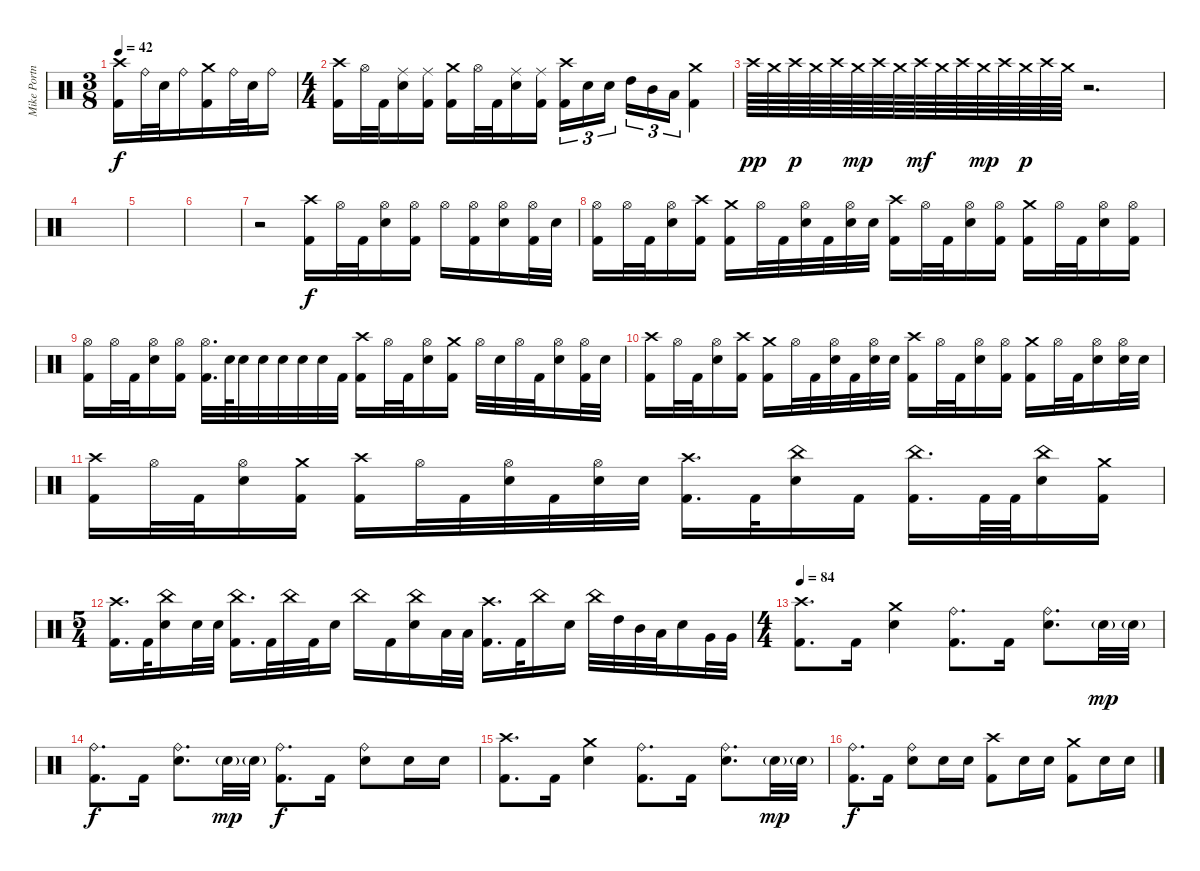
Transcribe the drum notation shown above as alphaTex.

\track ("Mike Portnoy" "Mike Portn") {instrument percussion}
\staff {score}
\articulation defaults
\ts (3 8)
\tempo 42
\clef neutral
\ks c
("Crash high (hit)" "Kick (hit) 2").16{dy f} "Ride (bell)".32 "Snare (hit) 2".32 "Ride (bell)".16 ("Crash medium (hit)" "Kick (hit) 2").16 "Ride (bell)".32 "Snare (hit) 2".32 "Ride (bell)".16 |
\ts (4 4)
("Crash high (hit)" "Kick (hit) 2").16 "Hi-Hat (open)".32 "Kick (hit) 2".32 ("Ride (middle)" "Snare (hit) 2").16 ("Ride (middle)" "Kick (hit) 2").16 ("Crash medium (hit)" "Kick (hit) 2").16 "Hi-Hat (open)".32 "Kick (hit) 2".32 ("Ride (middle)" "Snare (hit) 2").16 ("Ride (middle)" "Kick (hit) 2").16 ("Crash high (hit)" "Kick (hit) 2").16{tu (3 2)} "Snare (hit) 2".16{tu (3 2)} "Snare (hit) 2".16{tu (3 2) beam splitsecondary} "High Tom (hit)".16{tu (3 2)} "Mid Tom (hit)".16{tu (3 2)} "Low Tom (hit)".16{tu (3 2)} ("Crash medium (hit)" "Kick (hit) 2").4 |
"Crash high (hit)".64{dy pp} "Crash medium (hit)".64 "Crash high (hit)".64{dy p} "Crash medium (hit)".64 "Crash high (hit)".64 "Crash medium (hit)".64{dy mp} "Crash high (hit)".64 "Crash medium (hit)".64 "Crash high (hit)".64{dy mf} "Crash medium (hit)".64 "Crash high (hit)".64 "Crash medium (hit)".64{dy mp} "Crash high (hit)".64 "Crash medium (hit)".64{dy p} "Crash high (hit)".64 "Crash medium (hit)".64 r.2{d} |
|
|
|
r.2 ("Crash high (hit)" "Kick (hit) 2").16{dy f} "Hi-Hat (open)".32 "Kick (hit) 2".32 ("Hi-Hat (open)" "Snare (hit) 2").16 ("Hi-Hat (open)" "Kick (hit) 2").16 "Hi-Hat (open)".16 ("Hi-Hat (open)" "Kick (hit) 2").16 ("Hi-Hat (open)" "Snare (hit) 2").16 ("Hi-Hat (open)" "Kick (hit) 2").32 "Snare (hit) 2".32 |
("Hi-Hat (open)" "Kick (hit) 2").16 "Hi-Hat (open)".32 "Kick (hit) 2".32 ("Hi-Hat (open)" "Snare (hit) 2").16 ("Crash high (hit)" "Kick (hit) 2").16 ("Crash medium (hit)" "Kick (hit) 2").16 "Hi-Hat (open)".32 "Kick (hit) 2".32 ("Hi-Hat (open)" "Snare (hit) 2").32 "Kick (hit) 2".32 ("Hi-Hat (open)" "Snare (hit) 2").32 "Snare (hit) 2".32 ("Crash high (hit)" "Kick (hit) 2").16 "Hi-Hat (open)".32 "Kick (hit) 2".32 ("Hi-Hat (open)" "Snare (hit) 2").16 ("Hi-Hat (open)" "Kick (hit) 2").16 ("Crash medium (hit)" "Kick (hit) 2").16 "Hi-Hat (open)".32 "Kick (hit) 2".32 ("Hi-Hat (open)" "Snare (hit) 2").16 ("Hi-Hat (open)" "Kick (hit) 2").16 |
("Hi-Hat (open)" "Kick (hit) 2").16 "Hi-Hat (open)".32 "Kick (hit) 2".32 ("Hi-Hat (open)" "Snare (hit) 2").16 ("Hi-Hat (open)" "Kick (hit) 2").16 ("Hi-Hat (open)" "Kick (hit) 2").32{d} "Snare (hit) 2".64 "Snare (hit) 2".32 "Snare (hit) 2".32 "Snare (hit) 2".32 "Snare (hit) 2".32 "Snare (hit) 2".32 "Kick (hit) 2".32 ("Crash high (hit)" "Kick (hit) 2").16 "Hi-Hat (open)".32 "Kick (hit) 2".32 ("Hi-Hat (open)" "Snare (hit) 2").16 ("Crash medium (hit)" "Kick (hit) 2").16 "Hi-Hat (open)".32 "Snare (hit) 2".32 "Hi-Hat (open)".32 "Kick (hit) 2".32 ("Hi-Hat (open)" "Snare (hit) 2").16 ("Hi-Hat (open)" "Kick (hit) 2").32 "Snare (hit) 2".32 |
("Crash high (hit)" "Kick (hit) 2").16 "Hi-Hat (open)".32 "Kick (hit) 2".32 ("Hi-Hat (open)" "Snare (hit) 2").16 ("Crash high (hit)" "Kick (hit) 2").16 ("Crash medium (hit)" "Kick (hit) 2").16 "Hi-Hat (open)".32 "Kick (hit) 2".32 ("Hi-Hat (open)" "Snare (hit) 2").32 "Kick (hit) 2".32 ("Hi-Hat (open)" "Snare (hit) 2").32 "Snare (hit) 2".32 ("Crash high (hit)" "Kick (hit) 2").16 "Hi-Hat (open)".32 "Kick (hit) 2".32 ("Hi-Hat (open)" "Snare (hit) 2").16 ("Hi-Hat (open)" "Kick (hit) 2").16 ("Crash medium (hit)" "Kick (hit) 2").16 "Hi-Hat (open)".32 "Kick (hit) 2".32 ("Hi-Hat (open)" "Snare (hit) 2").16 ("Hi-Hat (open)" "Snare (hit) 2").32 "Snare (hit) 2".32 |
("Crash high (hit)" "Kick (hit) 2").16 "Hi-Hat (open)".32 "Kick (hit) 2".32 ("Hi-Hat (open)" "Snare (hit) 2").16 ("Crash medium (hit)" "Kick (hit) 2").16 ("Crash high (hit)" "Kick (hit) 2").16 "Hi-Hat (open)".32 "Kick (hit) 2".32 ("Hi-Hat (open)" "Snare (hit) 2").32 "Kick (hit) 2".32 ("Hi-Hat (open)" "Snare (hit) 2").32 "Snare (hit) 2".32 ("Crash high (hit)" "Kick (hit) 2").16{d} "Kick (hit) 2".32 ("China (hit)" "Snare (hit) 2").16 "Kick (hit) 2".16 ("China (hit)" "Kick (hit) 2").16{d} "Kick (hit) 2".64 "Kick (hit) 2".64 ("China (hit)" "Snare (hit) 2").16 ("Crash medium (hit)" "Kick (hit) 2").16 |
\ts (5 4)
("Crash high (hit)" "Kick (hit) 2").16{d} "Kick (hit) 2".32 ("China (hit)" "Snare (hit) 2").16 "Snare (hit) 2".32 "Snare (hit) 2".32 ("China (hit)" "Kick (hit) 2").16{d} "Kick (hit) 2".32 "China (hit)".32 "Kick (hit) 2".32 "Snare (hit) 2".16 "China (hit)".16 "Kick (hit) 2".16 ("China (hit)" "Snare (hit) 2").16 "Low Tom (hit)".32 "Low Tom (hit)".32 ("Crash high (hit)" "Kick (hit) 2").16{d} "Kick (hit) 2".32 "China (hit)".16 "Snare (hit) 2".16 "China (hit)".32 "High Tom (hit)".32 "Mid Tom (hit)".32 "Low Tom (hit)".32 "Snare (hit) 2".16 "Very Low Tom (hit)".32 "Very Low Tom (hit)".32 |
\ts (4 4)
\tempo 84
("Crash high (hit)" "Kick (hit) 2").8{d} "Kick (hit) 2".16 ("Crash medium (hit)" "Snare (hit) 2").4 ("Ride (bell)" "Kick (hit) 2").8{d} "Kick (hit) 2".16 ("Ride (bell)" "Snare (hit) 2").8{d} "Snare (hit) 2"{g}.32{dy mp} "Snare (hit) 2"{g}.32 |
("Ride (bell)" "Kick (hit) 2").8{d dy f} "Kick (hit) 2".16 ("Ride (bell)" "Snare (hit) 2").8{d} "Snare (hit) 2"{g}.32{dy mp} "Snare (hit) 2"{g}.32 ("Ride (bell)" "Kick (hit) 2").8{d dy f} "Kick (hit) 2".16 ("Ride (bell)" "Snare (hit) 2").8 "Snare (hit) 2".16 "Snare (hit) 2".16 |
("Crash high (hit)" "Kick (hit) 2").8{d} "Kick (hit) 2".16 ("Crash medium (hit)" "Snare (hit) 2").4 ("Ride (bell)" "Kick (hit) 2").8{d} "Kick (hit) 2".16 ("Ride (bell)" "Snare (hit) 2").8{d} "Snare (hit) 2"{g}.32{dy mp} "Snare (hit) 2"{g}.32 |
("Ride (bell)" "Kick (hit) 2").8{d dy f} "Kick (hit) 2".16 ("Ride (bell)" "Snare (hit) 2").8 "Snare (hit) 2".16 "Snare (hit) 2".16 ("Crash high (hit)" "Kick (hit) 2").8 "Snare (hit) 2".16 "Snare (hit) 2".16 ("Crash medium (hit)" "Kick (hit) 2").8 "Snare (hit) 2".16 "Snare (hit) 2".16
